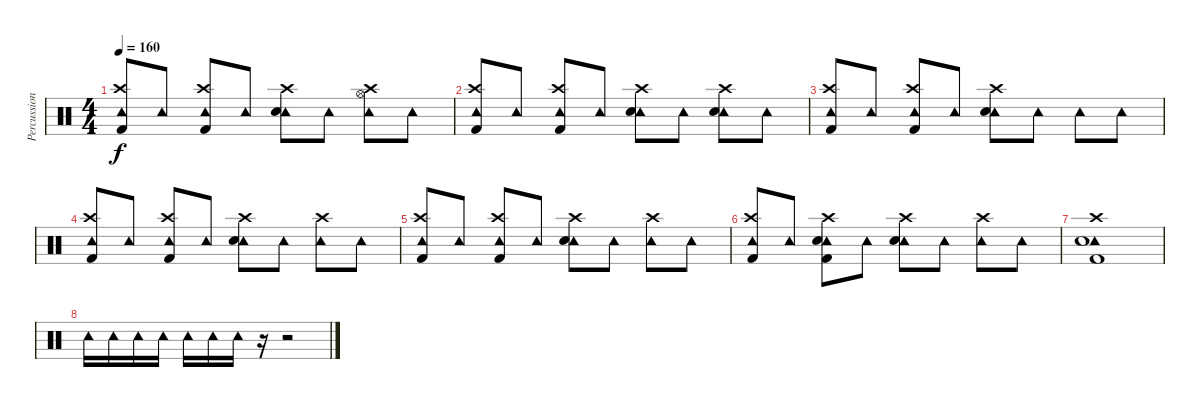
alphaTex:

\track ("Percussion" "Percussion") {instrument percussion}
\staff {score}
\articulation defaults
\ts (4 4)
\tempo 160
\clef neutral
\ks c
("Tambourine (hit)" "Crash high (hit)" "Kick (hit) 2").8{dy f} "Tambourine (hit)".8 ("Tambourine (hit)" "Crash high (hit)" "Kick (hit) 2").8 "Tambourine (hit)".8 ("Tambourine (hit)" "Snare (hit) 2" "Crash high (hit)").8 "Tambourine (hit)".8 ("Tambourine (hit)" "Hi-Hat (open)" "Crash high (hit)").8 "Tambourine (hit)".8 |
("Tambourine (hit)" "Crash high (hit)" "Kick (hit) 2").8 "Tambourine (hit)".8 ("Tambourine (hit)" "Crash high (hit)" "Kick (hit) 2").8 "Tambourine (hit)".8 ("Tambourine (hit)" "Snare (hit) 2" "Crash high (hit)").8 "Tambourine (hit)".8 ("Tambourine (hit)" "Snare (hit) 2" "Crash high (hit)").8 "Tambourine (hit)".8 |
("Tambourine (hit)" "Crash high (hit)" "Kick (hit) 2").8 "Tambourine (hit)".8 ("Tambourine (hit)" "Crash high (hit)" "Kick (hit) 2").8 "Tambourine (hit)".8 ("Tambourine (hit)" "Snare (hit) 2" "Crash high (hit)").8 "Tambourine (hit)".8 "Tambourine (hit)".8 "Tambourine (hit)".8 |
("Tambourine (hit)" "Crash high (hit)" "Kick (hit) 2").8 "Tambourine (hit)".8 ("Tambourine (hit)" "Crash high (hit)" "Kick (hit) 2").8 "Tambourine (hit)".8 ("Tambourine (hit)" "Snare (hit) 2" "Crash high (hit)").8 "Tambourine (hit)".8 ("Tambourine (hit)" "Crash high (hit)").8 "Tambourine (hit)".8 |
("Tambourine (hit)" "Crash high (hit)" "Kick (hit) 2").8 "Tambourine (hit)".8 ("Tambourine (hit)" "Crash high (hit)" "Kick (hit) 2").8 "Tambourine (hit)".8 ("Tambourine (hit)" "Snare (hit) 2" "Crash high (hit)").8 "Tambourine (hit)".8 ("Tambourine (hit)" "Crash high (hit)").8 "Tambourine (hit)".8 |
("Tambourine (hit)" "Crash high (hit)" "Kick (hit) 2").8 "Tambourine (hit)".8 ("Tambourine (hit)" "Snare (hit) 2" "Crash high (hit)" "Kick (hit) 2").8 "Tambourine (hit)".8 ("Tambourine (hit)" "Snare (hit) 2" "Crash high (hit)").8 "Tambourine (hit)".8 ("Tambourine (hit)" "Crash high (hit)").8 "Tambourine (hit)".8 |
("Tambourine (hit)" "Snare (hit) 2" "Crash high (hit)" "Kick (hit) 2").1 |
"Tambourine (hit)".16 "Tambourine (hit)".16 "Tambourine (hit)".16 "Tambourine (hit)".16 "Tambourine (hit)".16 "Tambourine (hit)".16 "Tambourine (hit)".16 r.16 r.2
